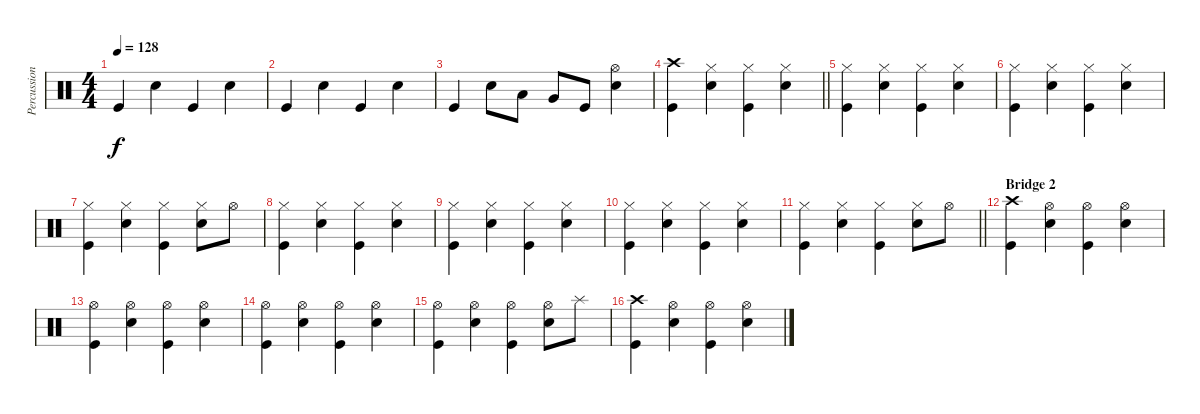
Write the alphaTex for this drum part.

\track ("Percussion" "Percussion") {instrument percussion}
\staff {score}
\articulation defaults
\ts (4 4)
\tempo 128
\clef neutral
\ks c "Kick (hit)".4{dy f} "Electric Snare (hit)".4 "Kick (hit)".4 "Electric Snare (hit)".4
|
"Kick (hit)".4 "Electric Snare (hit)".4 "Kick (hit)".4 "Electric Snare (hit)".4 |
"Kick (hit)".4 "Electric Snare (hit)".8 "Low Tom (hit)".8 "Very Low Tom (hit)".8 "Kick (hit)".8 ("Hi-Hat (open)" "Electric Snare (hit)").4 |
\barLineRight lightlight
("Crash high (hit)" "Kick (hit)").4 ("Hi-Hat (closed)" "Electric Snare (hit)").4 ("Hi-Hat (closed)" "Kick (hit)").4 ("Hi-Hat (closed)" "Electric Snare (hit)").4 |
("Hi-Hat (closed)" "Kick (hit)").4 ("Hi-Hat (closed)" "Electric Snare (hit)").4 ("Hi-Hat (closed)" "Kick (hit)").4 ("Hi-Hat (closed)" "Electric Snare (hit)").4 |
("Hi-Hat (closed)" "Kick (hit)").4 ("Hi-Hat (closed)" "Electric Snare (hit)").4 ("Hi-Hat (closed)" "Kick (hit)").4 ("Hi-Hat (closed)" "Electric Snare (hit)").4 |
("Hi-Hat (closed)" "Kick (hit)").4 ("Hi-Hat (closed)" "Electric Snare (hit)").4 ("Hi-Hat (closed)" "Kick (hit)").4 ("Hi-Hat (closed)" "Electric Snare (hit)").8 "Hi-Hat (open)".8 |
("Hi-Hat (closed)" "Kick (hit)").4 ("Hi-Hat (closed)" "Electric Snare (hit)").4 ("Hi-Hat (closed)" "Kick (hit)").4 ("Hi-Hat (closed)" "Electric Snare (hit)").4 |
("Hi-Hat (closed)" "Kick (hit)").4 ("Hi-Hat (closed)" "Electric Snare (hit)").4 ("Hi-Hat (closed)" "Kick (hit)").4 ("Hi-Hat (closed)" "Electric Snare (hit)").4 |
("Hi-Hat (closed)" "Kick (hit)").4 ("Hi-Hat (closed)" "Electric Snare (hit)").4 ("Hi-Hat (closed)" "Kick (hit)").4 ("Hi-Hat (closed)" "Electric Snare (hit)").4 |
\barLineRight lightlight
("Hi-Hat (closed)" "Kick (hit)").4 ("Hi-Hat (closed)" "Electric Snare (hit)").4 ("Hi-Hat (closed)" "Kick (hit)").4 ("Hi-Hat (closed)" "Electric Snare (hit)").8 "Hi-Hat (open)".8 |
\section ("" "Bridge 2")
("Crash high (hit)" "Kick (hit)").4 ("Hi-Hat (open)" "Electric Snare (hit)").4 ("Hi-Hat (open)" "Kick (hit)").4 ("Hi-Hat (open)" "Electric Snare (hit)").4 |
("Hi-Hat (open)" "Kick (hit)").4 ("Hi-Hat (open)" "Electric Snare (hit)").4 ("Hi-Hat (open)" "Kick (hit)").4 ("Hi-Hat (open)" "Electric Snare (hit)").4 |
("Hi-Hat (open)" "Kick (hit)").4 ("Hi-Hat (open)" "Electric Snare (hit)").4 ("Hi-Hat (open)" "Kick (hit)").4 ("Hi-Hat (open)" "Electric Snare (hit)").4 |
("Hi-Hat (open)" "Kick (hit)").4 ("Hi-Hat (open)" "Electric Snare (hit)").4 ("Hi-Hat (open)" "Kick (hit)").4 ("Hi-Hat (open)" "Electric Snare (hit)").8 "Splash (hit)".8 |
("Crash high (hit)" "Kick (hit)").4 ("Hi-Hat (open)" "Electric Snare (hit)").4 ("Hi-Hat (open)" "Kick (hit)").4 ("Hi-Hat (open)" "Electric Snare (hit)").4
